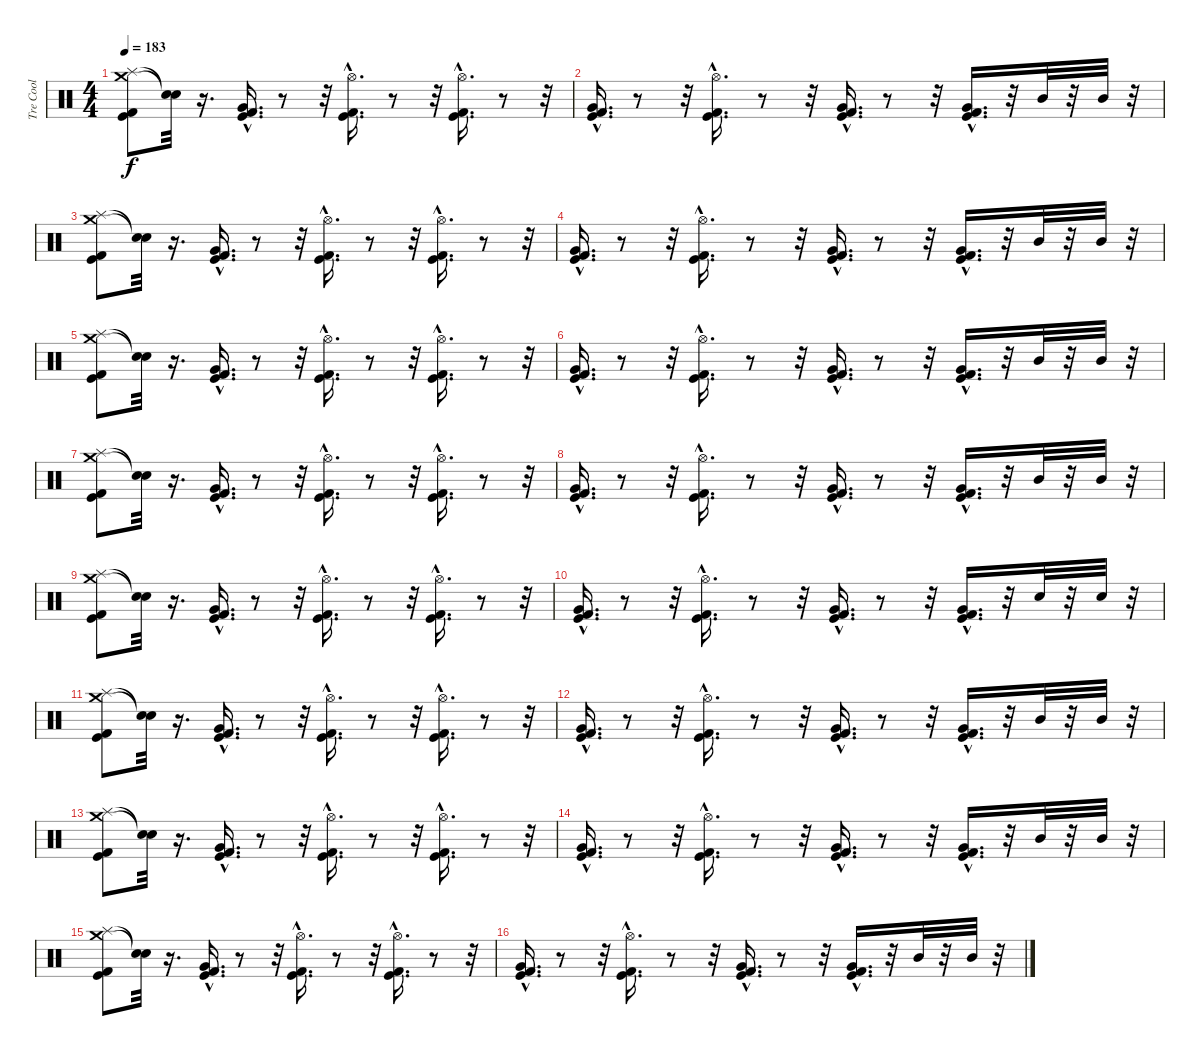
\track ("Tre Cool" "Tre Cool") {instrument percussion}
\staff {score}
\articulation defaults
\ts (4 4)
\tempo 183
\clef neutral
\ks c
("Splash (hit)" "Crash medium (hit)" "Kick (hit)" "Kick (hit) 2").8{dy f} ("Snare (hit)"{t} "Snare (hit)"{t}).32 r.16{d} ("Very Low Tom (hit)"{hac} "Kick (hit)"{hac} "Kick (hit) 2"{hac}).16{d} r.8 r.32 ("Kick (hit) 2"{hac} "Hi-Hat (open)"{hac} "Kick (hit)"{hac}).16{d} r.8 r.32 ("Kick (hit)"{hac} "Kick (hit) 2"{hac} "Hi-Hat (open)"{hac}).16{d} r.8 r.32 |
("Very Low Tom (hit)"{hac} "Kick (hit)"{hac} "Kick (hit) 2"{hac}).16{d} r.8 r.32 ("Kick (hit) 2"{hac} "Hi-Hat (open)"{hac} "Kick (hit)"{hac}).16{d} r.8 r.32 ("Kick (hit)"{hac} "Kick (hit) 2"{hac} "Very Low Tom (hit)"{hac}).16{d} r.8 r.32 ("Kick (hit)"{hac} "Kick (hit) 2"{hac} "Very Low Tom (hit)"{hac}).16{d} r.32 "Mid Tom (hit)".32 r.32 "Mid Tom (hit)".32 r.32 |
("Splash (hit)" "Crash medium (hit)" "Kick (hit)" "Kick (hit) 2").8 ("Snare (hit)"{t} "Snare (hit)"{t}).32 r.16{d} ("Very Low Tom (hit)"{hac} "Kick (hit)"{hac} "Kick (hit) 2"{hac}).16{d} r.8 r.32 ("Kick (hit) 2"{hac} "Hi-Hat (open)"{hac} "Kick (hit)"{hac}).16{d} r.8 r.32 ("Kick (hit)"{hac} "Kick (hit) 2"{hac} "Hi-Hat (open)"{hac}).16{d} r.8 r.32 |
("Very Low Tom (hit)"{hac} "Kick (hit)"{hac} "Kick (hit) 2"{hac}).16{d} r.8 r.32 ("Kick (hit) 2"{hac} "Hi-Hat (open)"{hac} "Kick (hit)"{hac}).16{d} r.8 r.32 ("Kick (hit)"{hac} "Kick (hit) 2"{hac} "Very Low Tom (hit)"{hac}).16{d} r.8 r.32 ("Kick (hit)"{hac} "Kick (hit) 2"{hac} "Very Low Tom (hit)"{hac}).16{d} r.32 "Mid Tom (hit)".32 r.32 "Mid Tom (hit)".32 r.32 |
("Splash (hit)" "Crash medium (hit)" "Kick (hit)" "Kick (hit) 2").8 ("Snare (hit)"{t} "Snare (hit)"{t}).32 r.16{d} ("Very Low Tom (hit)"{hac} "Kick (hit)"{hac} "Kick (hit) 2"{hac}).16{d} r.8 r.32 ("Kick (hit) 2"{hac} "Hi-Hat (open)"{hac} "Kick (hit)"{hac}).16{d} r.8 r.32 ("Kick (hit)"{hac} "Kick (hit) 2"{hac} "Hi-Hat (open)"{hac}).16{d} r.8 r.32 |
("Very Low Tom (hit)"{hac} "Kick (hit)"{hac} "Kick (hit) 2"{hac}).16{d} r.8 r.32 ("Kick (hit) 2"{hac} "Hi-Hat (open)"{hac} "Kick (hit)"{hac}).16{d} r.8 r.32 ("Kick (hit)"{hac} "Kick (hit) 2"{hac} "Very Low Tom (hit)"{hac}).16{d} r.8 r.32 ("Kick (hit)"{hac} "Kick (hit) 2"{hac} "Very Low Tom (hit)"{hac}).16{d} r.32 "Mid Tom (hit)".32 r.32 "Mid Tom (hit)".32 r.32 |
("Splash (hit)" "Crash medium (hit)" "Kick (hit)" "Kick (hit) 2").8 ("Snare (hit)"{t} "Snare (hit)"{t}).32 r.16{d} ("Very Low Tom (hit)"{hac} "Kick (hit)"{hac} "Kick (hit) 2"{hac}).16{d} r.8 r.32 ("Kick (hit) 2"{hac} "Hi-Hat (open)"{hac} "Kick (hit)"{hac}).16{d} r.8 r.32 ("Kick (hit)"{hac} "Kick (hit) 2"{hac} "Hi-Hat (open)"{hac}).16{d} r.8 r.32 |
("Very Low Tom (hit)"{hac} "Kick (hit)"{hac} "Kick (hit) 2"{hac}).16{d} r.8 r.32 ("Kick (hit) 2"{hac} "Hi-Hat (open)"{hac} "Kick (hit)"{hac}).16{d} r.8 r.32 ("Kick (hit)"{hac} "Kick (hit) 2"{hac} "Very Low Tom (hit)"{hac}).16{d} r.8 r.32 ("Kick (hit)"{hac} "Kick (hit) 2"{hac} "Very Low Tom (hit)"{hac}).16{d} r.32 "Mid Tom (hit)".32 r.32 "Mid Tom (hit)".32 r.32 |
("Splash (hit)" "Crash medium (hit)" "Kick (hit)" "Kick (hit) 2").8 ("Snare (hit)"{t} "Snare (hit)"{t}).32 r.16{d} ("Very Low Tom (hit)"{hac} "Kick (hit)"{hac} "Kick (hit) 2"{hac}).16{d} r.8 r.32 ("Kick (hit) 2"{hac} "Hi-Hat (open)"{hac} "Kick (hit)"{hac}).16{d} r.8 r.32 ("Kick (hit)"{hac} "Kick (hit) 2"{hac} "Hi-Hat (open)"{hac}).16{d} r.8 r.32 |
("Very Low Tom (hit)"{hac} "Kick (hit)"{hac} "Kick (hit) 2"{hac}).16{d} r.8 r.32 ("Kick (hit) 2"{hac} "Hi-Hat (open)"{hac} "Kick (hit)"{hac}).16{d} r.8 r.32 ("Kick (hit)"{hac} "Kick (hit) 2"{hac} "Very Low Tom (hit)"{hac}).16{d} r.8 r.32 ("Kick (hit)"{hac} "Kick (hit) 2"{hac} "Very Low Tom (hit)"{hac}).16{d} r.32 "Electric Snare (hit)".32 r.32 "Electric Snare (hit)".32 r.32 |
("Splash (hit)" "Crash medium (hit)" "Kick (hit)" "Kick (hit) 2").8 ("Snare (hit)"{t} "Snare (hit)"{t}).32 r.16{d} ("Very Low Tom (hit)"{hac} "Kick (hit)"{hac} "Kick (hit) 2"{hac}).16{d} r.8 r.32 ("Kick (hit) 2"{hac} "Hi-Hat (open)"{hac} "Kick (hit)"{hac}).16{d} r.8 r.32 ("Kick (hit)"{hac} "Kick (hit) 2"{hac} "Hi-Hat (open)"{hac}).16{d} r.8 r.32 |
("Very Low Tom (hit)"{hac} "Kick (hit)"{hac} "Kick (hit) 2"{hac}).16{d} r.8 r.32 ("Kick (hit) 2"{hac} "Hi-Hat (open)"{hac} "Kick (hit)"{hac}).16{d} r.8 r.32 ("Kick (hit)"{hac} "Kick (hit) 2"{hac} "Very Low Tom (hit)"{hac}).16{d} r.8 r.32 ("Kick (hit)"{hac} "Kick (hit) 2"{hac} "Very Low Tom (hit)"{hac}).16{d} r.32 "Mid Tom (hit)".32 r.32 "Mid Tom (hit)".32 r.32 |
("Splash (hit)" "Crash medium (hit)" "Kick (hit)" "Kick (hit) 2").8 ("Snare (hit)"{t} "Snare (hit)"{t}).32 r.16{d} ("Very Low Tom (hit)"{hac} "Kick (hit)"{hac} "Kick (hit) 2"{hac}).16{d} r.8 r.32 ("Kick (hit) 2"{hac} "Hi-Hat (open)"{hac} "Kick (hit)"{hac}).16{d} r.8 r.32 ("Kick (hit)"{hac} "Kick (hit) 2"{hac} "Hi-Hat (open)"{hac}).16{d} r.8 r.32 |
("Very Low Tom (hit)"{hac} "Kick (hit)"{hac} "Kick (hit) 2"{hac}).16{d} r.8 r.32 ("Kick (hit) 2"{hac} "Hi-Hat (open)"{hac} "Kick (hit)"{hac}).16{d} r.8 r.32 ("Kick (hit)"{hac} "Kick (hit) 2"{hac} "Very Low Tom (hit)"{hac}).16{d} r.8 r.32 ("Kick (hit)"{hac} "Kick (hit) 2"{hac} "Very Low Tom (hit)"{hac}).16{d} r.32 "Mid Tom (hit)".32 r.32 "Mid Tom (hit)".32 r.32 |
("Splash (hit)" "Crash medium (hit)" "Kick (hit)" "Kick (hit) 2").8 ("Snare (hit)"{t} "Snare (hit)"{t}).32 r.16{d} ("Very Low Tom (hit)"{hac} "Kick (hit)"{hac} "Kick (hit) 2"{hac}).16{d} r.8 r.32 ("Kick (hit) 2"{hac} "Hi-Hat (open)"{hac} "Kick (hit)"{hac}).16{d} r.8 r.32 ("Kick (hit)"{hac} "Kick (hit) 2"{hac} "Hi-Hat (open)"{hac}).16{d} r.8 r.32 |
("Very Low Tom (hit)"{hac} "Kick (hit)"{hac} "Kick (hit) 2"{hac}).16{d} r.8 r.32 ("Kick (hit) 2"{hac} "Hi-Hat (open)"{hac} "Kick (hit)"{hac}).16{d} r.8 r.32 ("Kick (hit)"{hac} "Kick (hit) 2"{hac} "Very Low Tom (hit)"{hac}).16{d} r.8 r.32 ("Kick (hit)"{hac} "Kick (hit) 2"{hac} "Very Low Tom (hit)"{hac}).16{d} r.32 "Mid Tom (hit)".32 r.32 "Mid Tom (hit)".32 r.32
